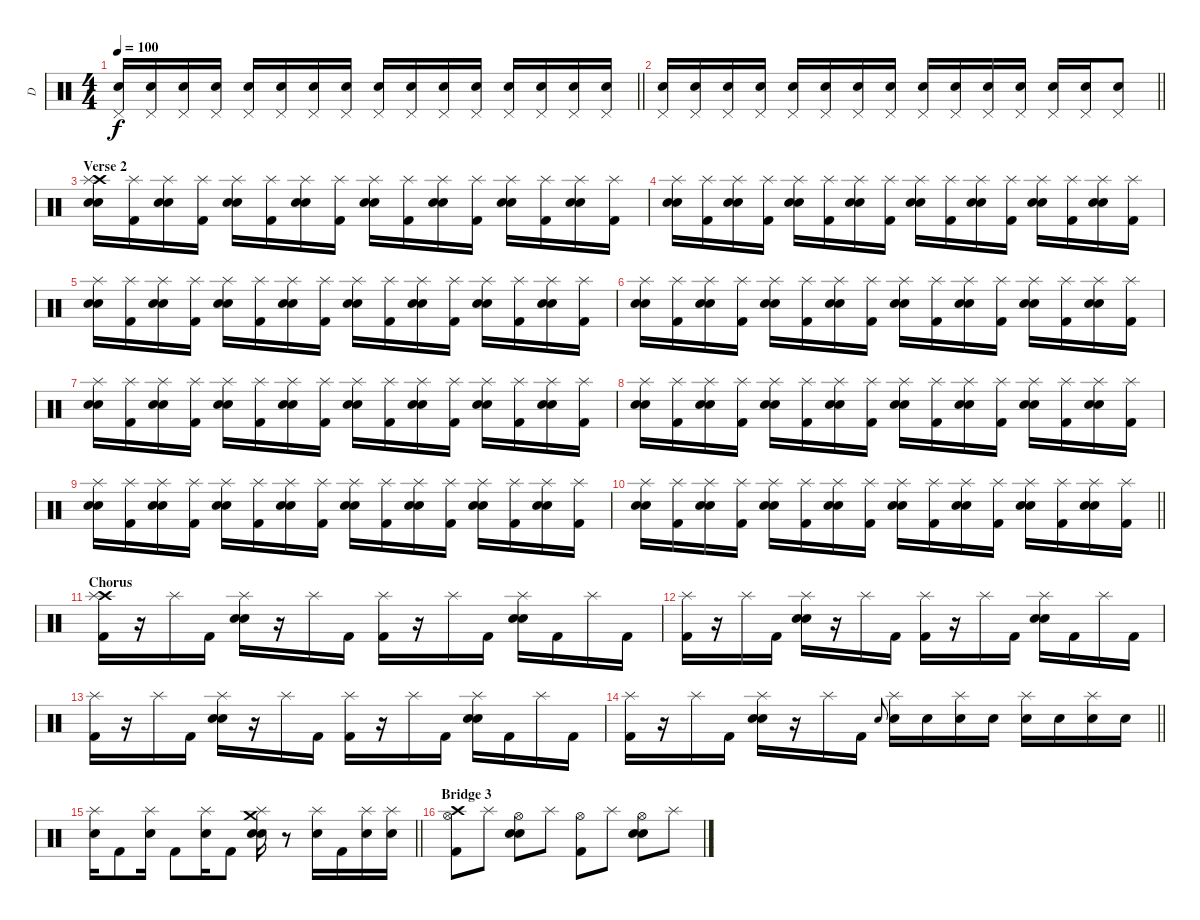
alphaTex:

\track ("D" "D") {instrument percussion}
\staff {score}
\articulation defaults
\ts (4 4)
\tempo 100
\clef neutral
\barLineRight lightlight
\ks c
("Electric Snare (hit)" "Pedal Hi-Hat (hit)").16{dy f volume 13} ("Electric Snare (hit)" "Pedal Hi-Hat (hit)").16 ("Electric Snare (hit)" "Pedal Hi-Hat (hit)").16 ("Electric Snare (hit)" "Pedal Hi-Hat (hit)").16 ("Electric Snare (hit)" "Pedal Hi-Hat (hit)").16 ("Electric Snare (hit)" "Pedal Hi-Hat (hit)").16 ("Electric Snare (hit)" "Pedal Hi-Hat (hit)").16 ("Electric Snare (hit)" "Pedal Hi-Hat (hit)").16 ("Electric Snare (hit)" "Pedal Hi-Hat (hit)").16 ("Electric Snare (hit)" "Pedal Hi-Hat (hit)").16 ("Electric Snare (hit)" "Pedal Hi-Hat (hit)").16 ("Electric Snare (hit)" "Pedal Hi-Hat (hit)").16 ("Electric Snare (hit)" "Pedal Hi-Hat (hit)").16 ("Electric Snare (hit)" "Pedal Hi-Hat (hit)").16 ("Electric Snare (hit)" "Pedal Hi-Hat (hit)").16 ("Electric Snare (hit)" "Pedal Hi-Hat (hit)").16 |
\barLineRight lightlight
("Electric Snare (hit)" "Pedal Hi-Hat (hit)").16 ("Electric Snare (hit)" "Pedal Hi-Hat (hit)").16 ("Electric Snare (hit)" "Pedal Hi-Hat (hit)").16 ("Electric Snare (hit)" "Pedal Hi-Hat (hit)").16 ("Electric Snare (hit)" "Pedal Hi-Hat (hit)").16 ("Electric Snare (hit)" "Pedal Hi-Hat (hit)").16 ("Electric Snare (hit)" "Pedal Hi-Hat (hit)").16 ("Electric Snare (hit)" "Pedal Hi-Hat (hit)").16 ("Electric Snare (hit)" "Pedal Hi-Hat (hit)").16 ("Electric Snare (hit)" "Pedal Hi-Hat (hit)").16 ("Electric Snare (hit)" "Pedal Hi-Hat (hit)").16 ("Electric Snare (hit)" "Pedal Hi-Hat (hit)").16 ("Electric Snare (hit)" "Pedal Hi-Hat (hit)").16 ("Electric Snare (hit)" "Pedal Hi-Hat (hit)").16 ("Electric Snare (hit)" "Pedal Hi-Hat (hit)").8 |
\section ("" "Verse 2")
("Crash high (hit)" "Electric Snare (hit)" "Electric Snare (hit)" "Splash (hit)").16 ("Kick (hit) 2" "Splash (hit)").16 ("Electric Snare (hit)" "Electric Snare (hit)" "Splash (hit)").16 ("Kick (hit) 2" "Splash (hit)").16 ("Electric Snare (hit)" "Electric Snare (hit)" "Splash (hit)").16 ("Kick (hit) 2" "Splash (hit)").16 ("Electric Snare (hit)" "Electric Snare (hit)" "Splash (hit)").16 ("Kick (hit) 2" "Splash (hit)").16 ("Electric Snare (hit)" "Electric Snare (hit)" "Splash (hit)").16 ("Kick (hit) 2" "Splash (hit)").16 ("Electric Snare (hit)" "Electric Snare (hit)" "Splash (hit)").16 ("Kick (hit) 2" "Splash (hit)").16 ("Electric Snare (hit)" "Electric Snare (hit)" "Splash (hit)").16 ("Kick (hit) 2" "Splash (hit)").16 ("Electric Snare (hit)" "Electric Snare (hit)" "Splash (hit)").16 ("Kick (hit) 2" "Splash (hit)").16 |
("Electric Snare (hit)" "Electric Snare (hit)" "Splash (hit)").16 ("Kick (hit) 2" "Splash (hit)").16 ("Electric Snare (hit)" "Electric Snare (hit)" "Splash (hit)").16 ("Kick (hit) 2" "Splash (hit)").16 ("Electric Snare (hit)" "Electric Snare (hit)" "Splash (hit)").16 ("Kick (hit) 2" "Splash (hit)").16 ("Electric Snare (hit)" "Electric Snare (hit)" "Splash (hit)").16 ("Kick (hit) 2" "Splash (hit)").16 ("Electric Snare (hit)" "Electric Snare (hit)" "Splash (hit)").16 ("Kick (hit) 2" "Splash (hit)").16 ("Electric Snare (hit)" "Electric Snare (hit)" "Splash (hit)").16 ("Kick (hit) 2" "Splash (hit)").16 ("Electric Snare (hit)" "Electric Snare (hit)" "Splash (hit)").16 ("Kick (hit) 2" "Splash (hit)").16 ("Electric Snare (hit)" "Electric Snare (hit)" "Splash (hit)").16 ("Kick (hit) 2" "Splash (hit)").16 |
("Electric Snare (hit)" "Electric Snare (hit)" "Splash (hit)").16 ("Kick (hit) 2" "Splash (hit)").16 ("Electric Snare (hit)" "Electric Snare (hit)" "Splash (hit)").16 ("Kick (hit) 2" "Splash (hit)").16 ("Electric Snare (hit)" "Electric Snare (hit)" "Splash (hit)").16 ("Kick (hit) 2" "Splash (hit)").16 ("Electric Snare (hit)" "Electric Snare (hit)" "Splash (hit)").16 ("Kick (hit) 2" "Splash (hit)").16 ("Electric Snare (hit)" "Electric Snare (hit)" "Splash (hit)").16 ("Kick (hit) 2" "Splash (hit)").16 ("Electric Snare (hit)" "Electric Snare (hit)" "Splash (hit)").16 ("Kick (hit) 2" "Splash (hit)").16 ("Electric Snare (hit)" "Electric Snare (hit)" "Splash (hit)").16 ("Kick (hit) 2" "Splash (hit)").16 ("Electric Snare (hit)" "Electric Snare (hit)" "Splash (hit)").16 ("Kick (hit) 2" "Splash (hit)").16 |
("Electric Snare (hit)" "Electric Snare (hit)" "Splash (hit)").16 ("Kick (hit) 2" "Splash (hit)").16 ("Electric Snare (hit)" "Electric Snare (hit)" "Splash (hit)").16 ("Kick (hit) 2" "Splash (hit)").16 ("Electric Snare (hit)" "Electric Snare (hit)" "Splash (hit)").16 ("Kick (hit) 2" "Splash (hit)").16 ("Electric Snare (hit)" "Electric Snare (hit)" "Splash (hit)").16 ("Kick (hit) 2" "Splash (hit)").16 ("Electric Snare (hit)" "Electric Snare (hit)" "Splash (hit)").16 ("Kick (hit) 2" "Splash (hit)").16 ("Electric Snare (hit)" "Electric Snare (hit)" "Splash (hit)").16 ("Kick (hit) 2" "Splash (hit)").16 ("Electric Snare (hit)" "Electric Snare (hit)" "Splash (hit)").16 ("Kick (hit) 2" "Splash (hit)").16 ("Electric Snare (hit)" "Electric Snare (hit)" "Splash (hit)").16 ("Kick (hit) 2" "Splash (hit)").16 |
("Electric Snare (hit)" "Electric Snare (hit)" "Splash (hit)").16 ("Kick (hit) 2" "Splash (hit)").16 ("Electric Snare (hit)" "Electric Snare (hit)" "Splash (hit)").16 ("Kick (hit) 2" "Splash (hit)").16 ("Electric Snare (hit)" "Electric Snare (hit)" "Splash (hit)").16 ("Kick (hit) 2" "Splash (hit)").16 ("Electric Snare (hit)" "Electric Snare (hit)" "Splash (hit)").16 ("Kick (hit) 2" "Splash (hit)").16 ("Electric Snare (hit)" "Electric Snare (hit)" "Splash (hit)").16 ("Kick (hit) 2" "Splash (hit)").16 ("Electric Snare (hit)" "Electric Snare (hit)" "Splash (hit)").16 ("Kick (hit) 2" "Splash (hit)").16 ("Electric Snare (hit)" "Electric Snare (hit)" "Splash (hit)").16 ("Kick (hit) 2" "Splash (hit)").16 ("Electric Snare (hit)" "Electric Snare (hit)" "Splash (hit)").16 ("Kick (hit) 2" "Splash (hit)").16 |
("Electric Snare (hit)" "Electric Snare (hit)" "Splash (hit)").16 ("Kick (hit) 2" "Splash (hit)").16 ("Electric Snare (hit)" "Electric Snare (hit)" "Splash (hit)").16 ("Kick (hit) 2" "Splash (hit)").16 ("Electric Snare (hit)" "Electric Snare (hit)" "Splash (hit)").16 ("Kick (hit) 2" "Splash (hit)").16 ("Electric Snare (hit)" "Electric Snare (hit)" "Splash (hit)").16 ("Kick (hit) 2" "Splash (hit)").16 ("Electric Snare (hit)" "Electric Snare (hit)" "Splash (hit)").16 ("Kick (hit) 2" "Splash (hit)").16 ("Electric Snare (hit)" "Electric Snare (hit)" "Splash (hit)").16 ("Kick (hit) 2" "Splash (hit)").16 ("Electric Snare (hit)" "Electric Snare (hit)" "Splash (hit)").16 ("Kick (hit) 2" "Splash (hit)").16 ("Electric Snare (hit)" "Electric Snare (hit)" "Splash (hit)").16 ("Kick (hit) 2" "Splash (hit)").16 |
("Electric Snare (hit)" "Electric Snare (hit)" "Splash (hit)").16 ("Kick (hit) 2" "Splash (hit)").16 ("Electric Snare (hit)" "Electric Snare (hit)" "Splash (hit)").16 ("Kick (hit) 2" "Splash (hit)").16 ("Electric Snare (hit)" "Electric Snare (hit)" "Splash (hit)").16 ("Kick (hit) 2" "Splash (hit)").16 ("Electric Snare (hit)" "Electric Snare (hit)" "Splash (hit)").16 ("Kick (hit) 2" "Splash (hit)").16 ("Electric Snare (hit)" "Electric Snare (hit)" "Splash (hit)").16 ("Kick (hit) 2" "Splash (hit)").16 ("Electric Snare (hit)" "Electric Snare (hit)" "Splash (hit)").16 ("Kick (hit) 2" "Splash (hit)").16 ("Electric Snare (hit)" "Electric Snare (hit)" "Splash (hit)").16 ("Kick (hit) 2" "Splash (hit)").16 ("Electric Snare (hit)" "Electric Snare (hit)" "Splash (hit)").16 ("Kick (hit) 2" "Splash (hit)").16 |
\barLineRight lightlight
("Electric Snare (hit)" "Electric Snare (hit)" "Splash (hit)").16 ("Kick (hit) 2" "Splash (hit)").16 ("Electric Snare (hit)" "Electric Snare (hit)" "Splash (hit)").16 ("Kick (hit) 2" "Splash (hit)").16 ("Electric Snare (hit)" "Electric Snare (hit)" "Splash (hit)").16 ("Kick (hit) 2" "Splash (hit)").16 ("Electric Snare (hit)" "Electric Snare (hit)" "Splash (hit)").16 ("Kick (hit) 2" "Splash (hit)").16 ("Electric Snare (hit)" "Electric Snare (hit)" "Splash (hit)").16 ("Kick (hit) 2" "Splash (hit)").16 ("Electric Snare (hit)" "Electric Snare (hit)" "Splash (hit)").16 ("Kick (hit) 2" "Splash (hit)").16 ("Electric Snare (hit)" "Electric Snare (hit)" "Splash (hit)").16 ("Kick (hit) 2" "Splash (hit)").16 ("Electric Snare (hit)" "Electric Snare (hit)" "Splash (hit)").16 ("Kick (hit) 2" "Splash (hit)").16 |
\section ("" "Chorus")
("Crash high (hit)" "Kick (hit) 2" "Splash (hit)").16 r.16 "Splash (hit)".16 "Kick (hit) 2".16 ("Electric Snare (hit)" "Electric Snare (hit)" "Splash (hit)").16 r.16 "Splash (hit)".16 "Kick (hit) 2".16 ("Kick (hit) 2" "Splash (hit)").16 r.16 "Splash (hit)".16 "Kick (hit) 2".16 ("Electric Snare (hit)" "Electric Snare (hit)" "Splash (hit)").16 "Kick (hit) 2".16 "Splash (hit)".16 "Kick (hit) 2".16 |
("Kick (hit) 2" "Splash (hit)").16 r.16 "Splash (hit)".16 "Kick (hit) 2".16 ("Electric Snare (hit)" "Electric Snare (hit)" "Splash (hit)").16 r.16 "Splash (hit)".16 "Kick (hit) 2".16 ("Kick (hit) 2" "Splash (hit)").16 r.16 "Splash (hit)".16 "Kick (hit) 2".16 ("Electric Snare (hit)" "Electric Snare (hit)" "Splash (hit)").16 "Kick (hit) 2".16 "Splash (hit)".16 "Kick (hit) 2".16 |
("Kick (hit) 2" "Splash (hit)").16 r.16 "Splash (hit)".16 "Kick (hit) 2".16 ("Electric Snare (hit)" "Electric Snare (hit)" "Splash (hit)").16 r.16 "Splash (hit)".16 "Kick (hit) 2".16 ("Kick (hit) 2" "Splash (hit)").16 r.16 "Splash (hit)".16 "Kick (hit) 2".16 ("Electric Snare (hit)" "Electric Snare (hit)" "Splash (hit)").16 "Kick (hit) 2".16 "Splash (hit)".16 "Kick (hit) 2".16 |
\barLineRight lightlight
("Kick (hit) 2" "Splash (hit)").16 r.16 "Splash (hit)".16 "Kick (hit) 2".16 ("Electric Snare (hit)" "Electric Snare (hit)" "Splash (hit)").16 r.16 "Splash (hit)".16 "Kick (hit) 2".16 "Electric Snare (hit)".8{gr onbeat} ("Electric Snare (hit)" "Splash (hit)").16 "Electric Snare (hit)".16 ("Electric Snare (hit)" "Splash (hit)").16 "Electric Snare (hit)".16 ("Electric Snare (hit)" "Splash (hit)").16 "Electric Snare (hit)".16 ("Electric Snare (hit)" "Splash (hit)").16 "Electric Snare (hit)".16 |
\barLineRight lightlight
("Electric Snare (hit)" "Splash (hit)").16 "Kick (hit) 2".8 ("Electric Snare (hit)" "Splash (hit)").16 "Kick (hit) 2".8 ("Electric Snare (hit)" "Splash (hit)").16 "Kick (hit) 2".8 ("Crash medium (hit)" "Electric Snare (hit)" "Electric Snare (hit)" "Splash (hit)").16 r.8 ("Electric Snare (hit)" "Splash (hit)").16 "Kick (hit) 2".16 ("Electric Snare (hit)" "Splash (hit)").16 ("Electric Snare (hit)" "Splash (hit)").16 |
\section ("" "Bridge 3")
("Crash high (hit)" "Kick (hit) 2" "Hi-Hat (open)").8 "Splash (hit)".8 ("Electric Snare (hit)" "Electric Snare (hit)" "Hi-Hat (open)").8 "Splash (hit)".8 ("Kick (hit) 2" "Hi-Hat (open)").8 "Splash (hit)".8 ("Electric Snare (hit)" "Electric Snare (hit)" "Hi-Hat (open)").8 "Splash (hit)".8
